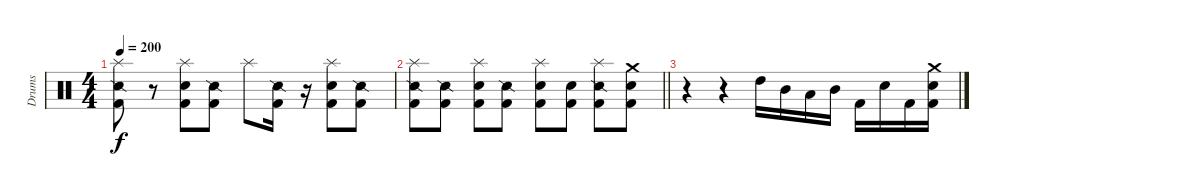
\track ("Drums" "Drums") {instrument percussion}
\staff {score}
\articulation defaults
\ts (4 4)
\tempo 200
\clef neutral
\ks c
("Splash (hit)" "Snare (side stick) 2" "Kick (hit) 2").8{dy f} r.8 ("Splash (hit)" "Snare (hit) 2" "Kick (hit) 2").8 ("Snare (side stick) 2" "Kick (hit) 2").8 "Splash (hit)".8 ("Snare (side stick) 2" "Kick (hit) 2").16 r.16 ("Splash (hit)" "Snare (hit) 2" "Kick (hit) 2").8 ("Snare (side stick) 2" "Kick (hit) 2").8 |
\barLineRight lightlight
("Splash (hit)" "Snare (side stick) 2" "Kick (hit) 2").8 ("Snare (side stick) 2" "Kick (hit) 2").8 ("Splash (hit)" "Kick (hit) 2" "Snare (hit) 2").8 ("Snare (side stick) 2" "Kick (hit) 2").8 ("Splash (hit)" "Snare (hit) 2" "Kick (hit) 2").8 ("Snare (hit) 2" "Kick (hit) 2").8 ("Splash (hit)" "Snare (side stick) 2" "Kick (hit) 2").8 ("Crash medium (hit)" "Snare (hit) 2" "Kick (hit) 2").8 |
r.4 r.4 "High Tom (hit)".16 "Mid Tom (hit)".16 "Low Tom (hit)".16 "Mid Tom (hit)".16 "Kick (hit) 2".16 "Snare (hit) 2".16 "Kick (hit) 2".16 ("Crash medium (hit)" "Snare (hit) 2" "Kick (hit) 2").16
